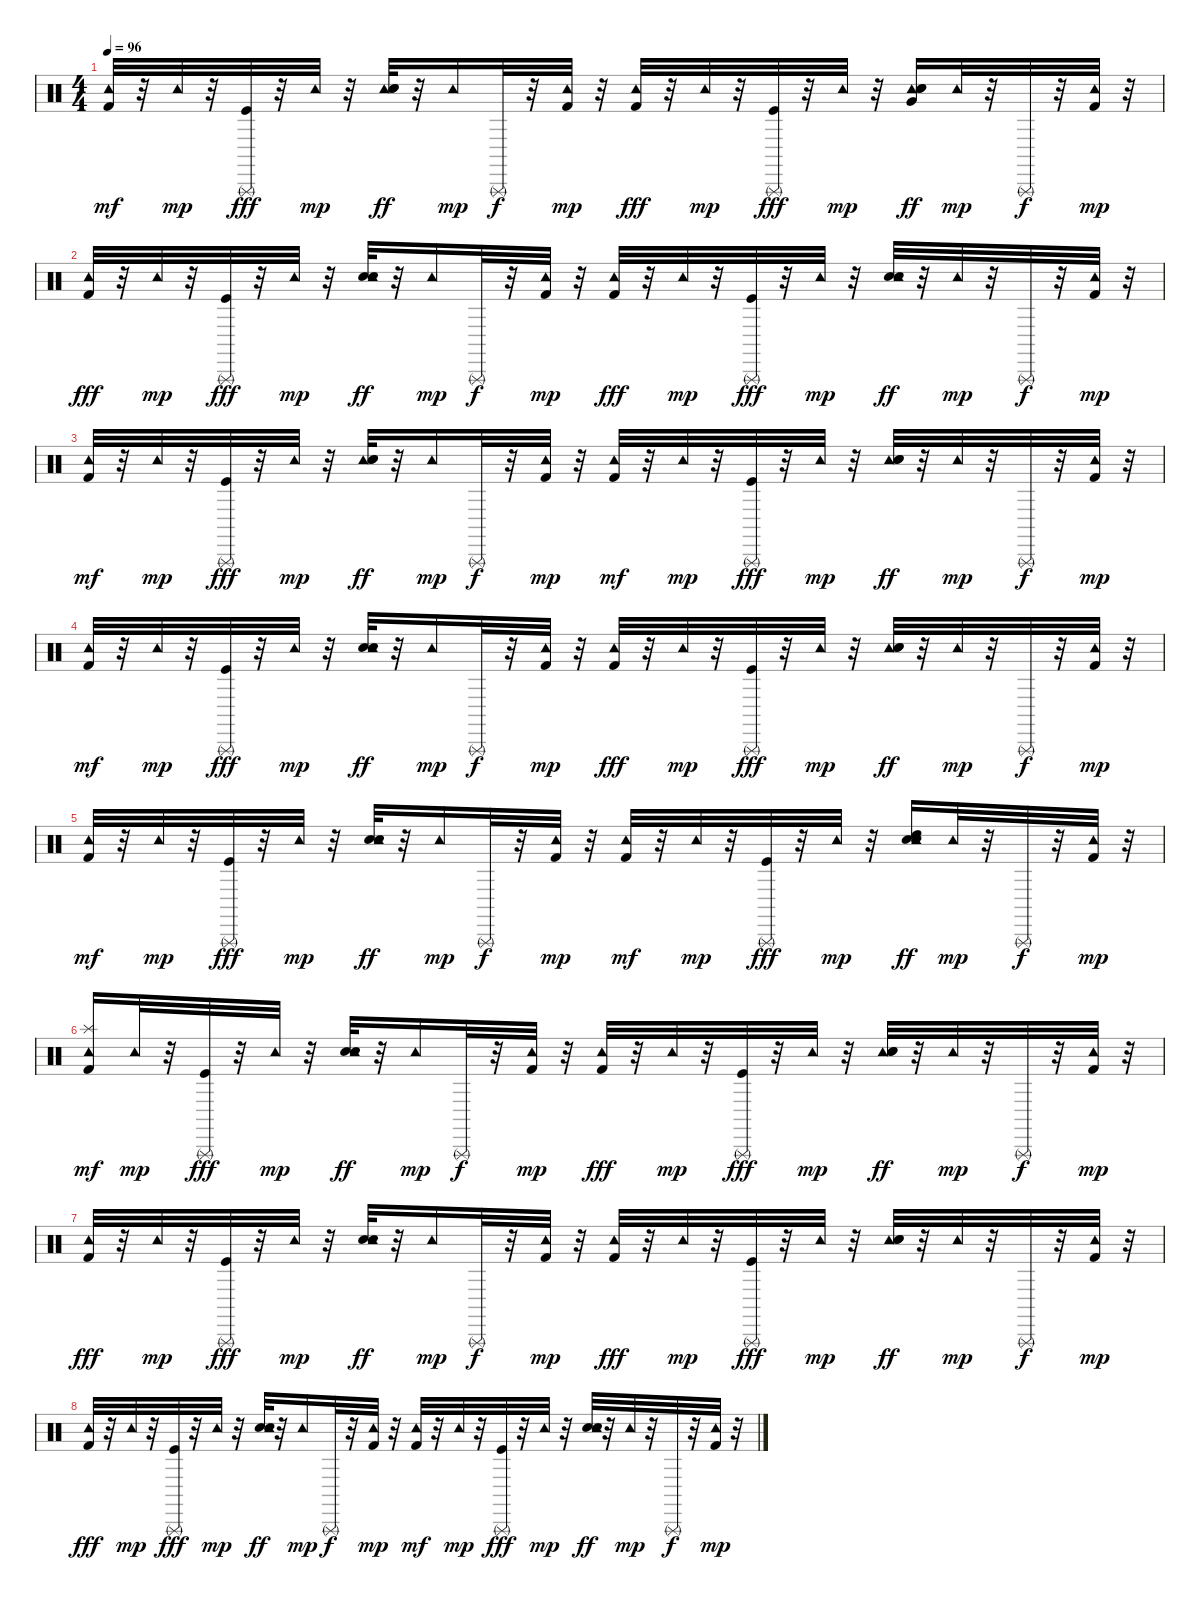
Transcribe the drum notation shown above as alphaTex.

\track "" {instrument percussion}
\staff {score}
\articulation defaults
\ts (4 4)
\tempo 96
\clef neutral
\ks c
("Kick (hit) 2" "Tambourine (hit)").32{dy mf} r.32 "Tambourine (hit)".32{dy mp} r.32 ("Kick (hit)" "Triangle (rnute)").32{dy fff} r.32 "Tambourine (hit)".32{dy mp} r.32 ("Tambourine (hit)" "Electric Snare (hit)" "Hand Clap (hit)").32{dy ff} r.32 "Tambourine (hit)".16{dy mp} "Triangle (rnute)".32{dy f} r.32 ("Kick (hit) 2" "Tambourine (hit)").32{dy mp} r.32 ("Tambourine (hit)" "Kick (hit) 2").32{dy fff} r.32 "Tambourine (hit)".32{dy mp} r.32 ("Triangle (rnute)" "Kick (hit)").32{dy fff} r.32 "Tambourine (hit)".32{dy mp} r.32 ("Very Low Tom (hit)" "Tambourine (hit)" "Electric Snare (hit)" "Hand Clap (hit)").16{dy ff} "Tambourine (hit)".32{dy mp} r.32 "Triangle (rnute)".32{dy f} r.32 ("Tambourine (hit)" "Kick (hit) 2").32{dy mp} r.32 |
("Tambourine (hit)" "Kick (hit) 2").32{dy fff} r.32 "Tambourine (hit)".32{dy mp} r.32 ("Triangle (rnute)" "Kick (hit)").32{dy fff} r.32 "Tambourine (hit)".32{dy mp} r.32 ("Electric Snare (hit)" "Tambourine (hit)" "Hand Clap (hit)").32{dy ff} r.32 "Tambourine (hit)".16{dy mp} "Triangle (rnute)".32{dy f} r.32 ("Kick (hit) 2" "Tambourine (hit)").32{dy mp} r.32 ("Tambourine (hit)" "Kick (hit) 2").32{dy fff} r.32 "Tambourine (hit)".32{dy mp} r.32 ("Triangle (rnute)" "Kick (hit)").32{dy fff} r.32 "Tambourine (hit)".32{dy mp} r.32 ("Electric Snare (hit)" "Tambourine (hit)" "Hand Clap (hit)").32{dy ff} r.32 "Tambourine (hit)".32{dy mp} r.32 "Triangle (rnute)".32{dy f} r.32 ("Kick (hit) 2" "Tambourine (hit)").32{dy mp} r.32 |
("Kick (hit) 2" "Tambourine (hit)").32{dy mf} r.32 "Tambourine (hit)".32{dy mp} r.32 ("Triangle (rnute)" "Kick (hit)").32{dy fff} r.32 "Tambourine (hit)".32{dy mp} r.32 ("Tambourine (hit)" "Electric Snare (hit)" "Hand Clap (hit)").32{dy ff} r.32 "Tambourine (hit)".16{dy mp} "Triangle (rnute)".32{dy f} r.32 ("Tambourine (hit)" "Kick (hit) 2").32{dy mp} r.32 ("Kick (hit) 2" "Tambourine (hit)").32{dy mf} r.32 "Tambourine (hit)".32{dy mp} r.32 ("Kick (hit)" "Triangle (rnute)").32{dy fff} r.32 "Tambourine (hit)".32{dy mp} r.32 ("Tambourine (hit)" "Electric Snare (hit)" "Hand Clap (hit)").32{dy ff} r.32 "Tambourine (hit)".32{dy mp} r.32 "Triangle (rnute)".32{dy f} r.32 ("Kick (hit) 2" "Tambourine (hit)").32{dy mp} r.32 |
("Kick (hit) 2" "Tambourine (hit)").32{dy mf} r.32 "Tambourine (hit)".32{dy mp} r.32 ("Kick (hit)" "Triangle (rnute)").32{dy fff} r.32 "Tambourine (hit)".32{dy mp} r.32 ("Electric Snare (hit)" "Tambourine (hit)" "Hand Clap (hit)").32{dy ff} r.32 "Tambourine (hit)".16{dy mp} "Triangle (rnute)".32{dy f} r.32 ("Tambourine (hit)" "Kick (hit) 2").32{dy mp} r.32 ("Tambourine (hit)" "Kick (hit) 2").32{dy fff} r.32 "Tambourine (hit)".32{dy mp} r.32 ("Triangle (rnute)" "Kick (hit)").32{dy fff} r.32 "Tambourine (hit)".32{dy mp} r.32 ("Tambourine (hit)" "Electric Snare (hit)" "Hand Clap (hit)").32{dy ff} r.32 "Tambourine (hit)".32{dy mp} r.32 "Triangle (rnute)".32{dy f} r.32 ("Tambourine (hit)" "Kick (hit) 2").32{dy mp} r.32 |
("Kick (hit) 2" "Tambourine (hit)").32{dy mf} r.32 "Tambourine (hit)".32{dy mp} r.32 ("Triangle (rnute)" "Kick (hit)").32{dy fff} r.32 "Tambourine (hit)".32{dy mp} r.32 ("Electric Snare (hit)" "Tambourine (hit)" "Hand Clap (hit)").32{dy ff} r.32 "Tambourine (hit)".16{dy mp} "Triangle (rnute)".32{dy f} r.32 ("Tambourine (hit)" "Kick (hit) 2").32{dy mp} r.32 ("Kick (hit) 2" "Tambourine (hit)").32{dy mf} r.32 "Tambourine (hit)".32{dy mp} r.32 ("Triangle (rnute)" "Kick (hit)").32{dy fff} r.32 "Tambourine (hit)".32{dy mp} r.32 ("Electric Snare (hit)" "Tambourine (hit)" "High Tom (hit)" "Hand Clap (hit)").16{dy ff} "Tambourine (hit)".32{dy mp} r.32 "Triangle (rnute)".32{dy f} r.32 ("Tambourine (hit)" "Kick (hit) 2").32{dy mp} r.32 |
("Kick (hit) 2" "Splash (hit)" "Tambourine (hit)").16{dy mf} "Tambourine (hit)".32{dy mp} r.32 ("Kick (hit)" "Triangle (rnute)").32{dy fff} r.32 "Tambourine (hit)".32{dy mp} r.32 ("Electric Snare (hit)" "Tambourine (hit)" "Hand Clap (hit)").32{dy ff} r.32 "Tambourine (hit)".16{dy mp} "Triangle (rnute)".32{dy f} r.32 ("Tambourine (hit)" "Kick (hit) 2").32{dy mp} r.32 ("Tambourine (hit)" "Kick (hit) 2").32{dy fff} r.32 "Tambourine (hit)".32{dy mp} r.32 ("Triangle (rnute)" "Kick (hit)").32{dy fff} r.32 "Tambourine (hit)".32{dy mp} r.32 ("Tambourine (hit)" "Electric Snare (hit)" "Hand Clap (hit)").32{dy ff} r.32 "Tambourine (hit)".32{dy mp} r.32 "Triangle (rnute)".32{dy f} r.32 ("Tambourine (hit)" "Kick (hit) 2").32{dy mp} r.32 |
("Tambourine (hit)" "Kick (hit) 2").32{dy fff} r.32 "Tambourine (hit)".32{dy mp} r.32 ("Triangle (rnute)" "Kick (hit)").32{dy fff} r.32 "Tambourine (hit)".32{dy mp} r.32 ("Electric Snare (hit)" "Tambourine (hit)" "Hand Clap (hit)").32{dy ff} r.32 "Tambourine (hit)".16{dy mp} "Triangle (rnute)".32{dy f} r.32 ("Kick (hit) 2" "Tambourine (hit)").32{dy mp} r.32 ("Tambourine (hit)" "Kick (hit) 2").32{dy fff} r.32 "Tambourine (hit)".32{dy mp} r.32 ("Kick (hit)" "Triangle (rnute)").32{dy fff} r.32 "Tambourine (hit)".32{dy mp} r.32 ("Tambourine (hit)" "Electric Snare (hit)" "Hand Clap (hit)").32{dy ff} r.32 "Tambourine (hit)".32{dy mp} r.32 "Triangle (rnute)".32{dy f} r.32 ("Kick (hit) 2" "Tambourine (hit)").32{dy mp} r.32 |
("Tambourine (hit)" "Kick (hit) 2").32{dy fff} r.32 "Tambourine (hit)".32{dy mp} r.32 ("Kick (hit)" "Triangle (rnute)").32{dy fff} r.32 "Tambourine (hit)".32{dy mp} r.32 ("Electric Snare (hit)" "Tambourine (hit)" "Hand Clap (hit)").32{dy ff} r.32 "Tambourine (hit)".16{dy mp} "Triangle (rnute)".32{dy f} r.32 ("Tambourine (hit)" "Kick (hit) 2").32{dy mp} r.32 ("Kick (hit) 2" "Tambourine (hit)").32{dy mf} r.32 "Tambourine (hit)".32{dy mp} r.32 ("Triangle (rnute)" "Kick (hit)").32{dy fff} r.32 "Tambourine (hit)".32{dy mp} r.32 ("Electric Snare (hit)" "Tambourine (hit)" "Hand Clap (hit)").32{dy ff} r.32 "Tambourine (hit)".32{dy mp} r.32 "Triangle (rnute)".32{dy f} r.32 ("Kick (hit) 2" "Tambourine (hit)").32{dy mp} r.32
